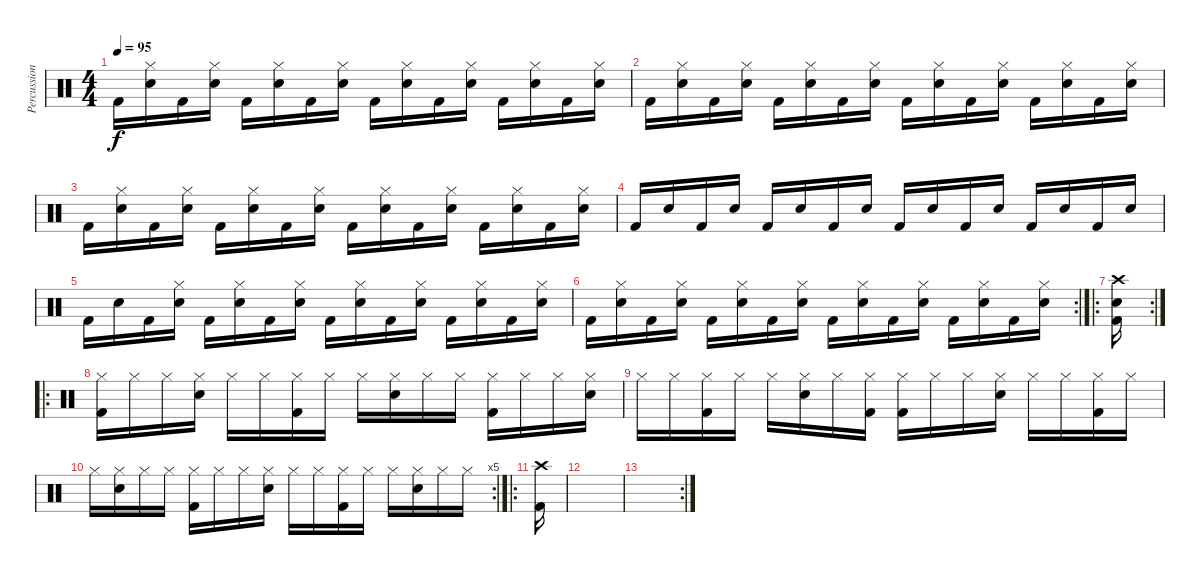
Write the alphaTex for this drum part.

\track ("Percussion" "Percussion") {instrument percussion}
\staff {score}
\articulation defaults
\ts (4 4)
\tempo 95
\clef neutral
\ks c "Kick (hit) 2".16{dy f}
("Electric Snare (hit)" "Hi-Hat (closed)").16 "Kick (hit) 2".16 ("Electric Snare (hit)" "Hi-Hat (closed)").16 "Kick (hit) 2".16 ("Electric Snare (hit)" "Hi-Hat (closed)").16 "Kick (hit) 2".16 ("Electric Snare (hit)" "Hi-Hat (closed)").16 "Kick (hit) 2".16 ("Electric Snare (hit)" "Hi-Hat (closed)").16 "Kick (hit) 2".16 ("Electric Snare (hit)" "Hi-Hat (closed)").16 "Kick (hit) 2".16 ("Electric Snare (hit)" "Hi-Hat (closed)").16 "Kick (hit) 2".16 ("Electric Snare (hit)" "Hi-Hat (closed)").16 |
"Kick (hit) 2".16 ("Electric Snare (hit)" "Hi-Hat (closed)").16 "Kick (hit) 2".16 ("Electric Snare (hit)" "Hi-Hat (closed)").16 "Kick (hit) 2".16 ("Electric Snare (hit)" "Hi-Hat (closed)").16 "Kick (hit) 2".16 ("Electric Snare (hit)" "Hi-Hat (closed)").16 "Kick (hit) 2".16 ("Electric Snare (hit)" "Hi-Hat (closed)").16 "Kick (hit) 2".16 ("Electric Snare (hit)" "Hi-Hat (closed)").16 "Kick (hit) 2".16 ("Electric Snare (hit)" "Hi-Hat (closed)").16 "Kick (hit) 2".16 ("Electric Snare (hit)" "Hi-Hat (closed)").16 |
"Kick (hit) 2".16 ("Electric Snare (hit)" "Hi-Hat (closed)").16 "Kick (hit) 2".16 ("Electric Snare (hit)" "Hi-Hat (closed)").16 "Kick (hit) 2".16 ("Electric Snare (hit)" "Hi-Hat (closed)").16 "Kick (hit) 2".16 ("Electric Snare (hit)" "Hi-Hat (closed)").16 "Kick (hit) 2".16 ("Electric Snare (hit)" "Hi-Hat (closed)").16 "Kick (hit) 2".16 ("Electric Snare (hit)" "Hi-Hat (closed)").16 "Kick (hit) 2".16 ("Electric Snare (hit)" "Hi-Hat (closed)").16 "Kick (hit) 2".16 ("Electric Snare (hit)" "Hi-Hat (closed)").16 |
"Kick (hit) 2".16 "Electric Snare (hit)".16 "Kick (hit) 2".16 "Electric Snare (hit)".16 "Kick (hit) 2".16 "Electric Snare (hit)".16 "Kick (hit) 2".16 "Electric Snare (hit)".16 "Kick (hit) 2".16 "Electric Snare (hit)".16 "Kick (hit) 2".16 "Electric Snare (hit)".16 "Kick (hit) 2".16 "Electric Snare (hit)".16 "Kick (hit) 2".16 "Electric Snare (hit)".16 |
"Kick (hit) 2".16 "Electric Snare (hit)".16 "Kick (hit) 2".16 ("Electric Snare (hit)" "Hi-Hat (closed)").16 "Kick (hit) 2".16 ("Electric Snare (hit)" "Hi-Hat (closed)").16 "Kick (hit) 2".16 ("Electric Snare (hit)" "Hi-Hat (closed)").16 "Kick (hit) 2".16 ("Electric Snare (hit)" "Hi-Hat (closed)").16 "Kick (hit) 2".16 ("Electric Snare (hit)" "Hi-Hat (closed)").16 "Kick (hit) 2".16 ("Electric Snare (hit)" "Hi-Hat (closed)").16 "Kick (hit) 2".16 ("Electric Snare (hit)" "Hi-Hat (closed)").16 |
\rc 2 "Kick (hit) 2".16
("Electric Snare (hit)" "Hi-Hat (closed)").16 "Kick (hit) 2".16 ("Electric Snare (hit)" "Hi-Hat (closed)").16 "Kick (hit) 2".16 ("Electric Snare (hit)" "Hi-Hat (closed)").16 "Kick (hit) 2".16 ("Electric Snare (hit)" "Hi-Hat (closed)").16 "Kick (hit) 2".16 ("Electric Snare (hit)" "Hi-Hat (closed)").16 "Kick (hit) 2".16 ("Electric Snare (hit)" "Hi-Hat (closed)").16 "Kick (hit) 2".16 ("Electric Snare (hit)" "Hi-Hat (closed)").16 "Kick (hit) 2".16 ("Electric Snare (hit)" "Hi-Hat (closed)").16 |
\ro
\rc 2
("Electric Snare (hit)" "Crash high (hit)" "Kick (hit) 2").16 |
\ro
("Hi-Hat (closed)" "Kick (hit) 2").16 "Hi-Hat (closed)".16 "Hi-Hat (closed)".16 ("Hi-Hat (closed)" "Electric Snare (hit)").16 "Hi-Hat (closed)".16 "Hi-Hat (closed)".16 ("Hi-Hat (closed)" "Kick (hit) 2").16 "Hi-Hat (closed)".16 "Hi-Hat (closed)".16 ("Hi-Hat (closed)" "Electric Snare (hit)").16 "Hi-Hat (closed)".16 "Hi-Hat (closed)".16 ("Hi-Hat (closed)" "Kick (hit) 2").16 "Hi-Hat (closed)".16 "Hi-Hat (closed)".16 ("Hi-Hat (closed)" "Electric Snare (hit)").16 |
"Hi-Hat (closed)".16 "Hi-Hat (closed)".16 ("Hi-Hat (closed)" "Kick (hit) 2").16 "Hi-Hat (closed)".16 "Hi-Hat (closed)".16 ("Hi-Hat (closed)" "Electric Snare (hit)").16 "Hi-Hat (closed)".16 ("Hi-Hat (closed)" "Kick (hit) 2").16 ("Hi-Hat (closed)" "Kick (hit) 2").16 "Hi-Hat (closed)".16 "Hi-Hat (closed)".16 ("Hi-Hat (closed)" "Electric Snare (hit)").16 "Hi-Hat (closed)".16 "Hi-Hat (closed)".16 ("Hi-Hat (closed)" "Kick (hit) 2").16 "Hi-Hat (closed)".16 |
\rc 5 "Hi-Hat (closed)".16
("Hi-Hat (closed)" "Electric Snare (hit)").16 "Hi-Hat (closed)".16 "Hi-Hat (closed)".16 ("Hi-Hat (closed)" "Kick (hit) 2").16 "Hi-Hat (closed)".16 "Hi-Hat (closed)".16 ("Hi-Hat (closed)" "Electric Snare (hit)").16 "Hi-Hat (closed)".16 "Hi-Hat (closed)".16 ("Hi-Hat (closed)" "Kick (hit) 2").16 "Hi-Hat (closed)".16 "Hi-Hat (closed)".16 ("Hi-Hat (closed)" "Electric Snare (hit)").16 "Hi-Hat (closed)".16 "Hi-Hat (closed)".16 |
\ro
("Crash high (hit)" "Kick (hit) 2").16 |
|
\rc 2
